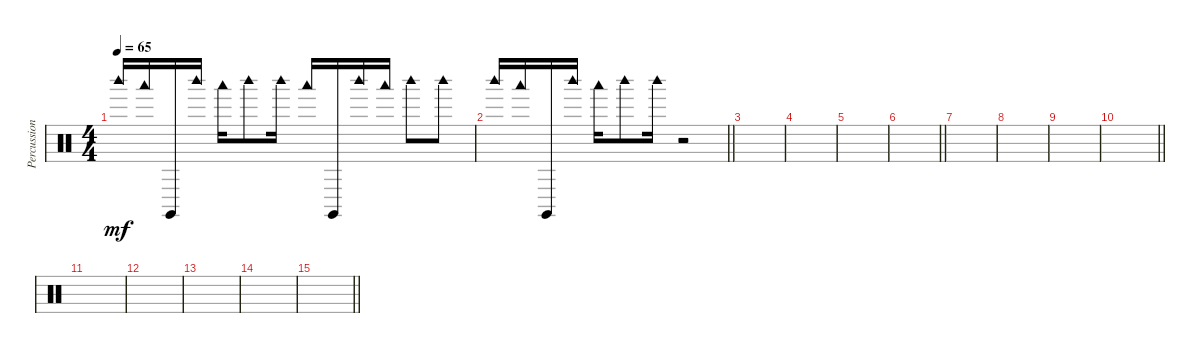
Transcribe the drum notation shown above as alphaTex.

\track ("Percussion 2" "Percussion") {instrument percussion}
\staff {score}
\articulation defaults
\ts (4 4)
\tempo 65
\clef neutral
\ks c "Woodblock high (hit)".16{dy mf} "Woodblock low (hit)".16 "Claves (hit)".16 "Woodblock high (hit)".16 "Woodblock low (hit)".16 "Woodblock high (hit)".8 "Woodblock high (hit)".16 "Woodblock low (hit)".16 "Claves (hit)".16 "Woodblock high (hit)".16 "Woodblock low (hit)".16 "Woodblock high (hit)".8 "Woodblock high (hit)".8
|
\barLineRight lightlight "Woodblock high (hit)".16 "Woodblock low (hit)".16 "Claves (hit)".16 "Woodblock high (hit)".16 "Woodblock low (hit)".16 "Woodblock high (hit)".8 "Woodblock high (hit)".16
r.2 |
|
|
|
\barLineRight lightlight
|
|
|
|
\barLineRight lightlight
|
|
|
|
|
\barLineRight lightlight
